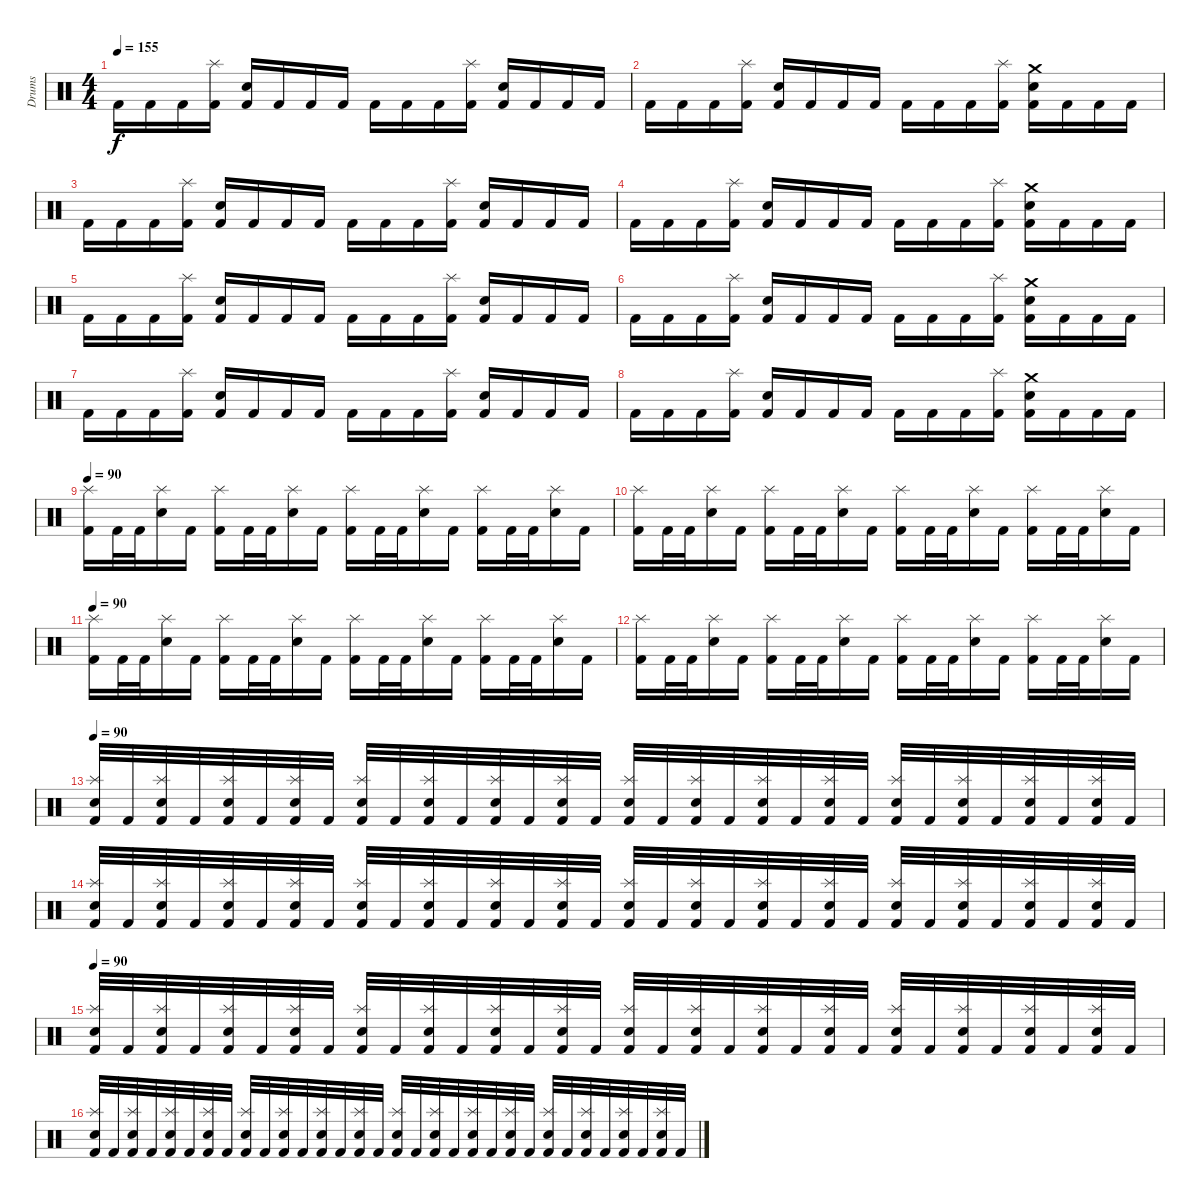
\track ("Drums" "Drums") {instrument percussion}
\staff {score}
\articulation defaults
\ts (4 4)
\tempo 155
\clef neutral
\ks c "Kick (hit) 2".16{dy f} "Kick (hit) 2".16 "Kick (hit) 2".16
("Splash (hit)" "Kick (hit) 2").16 ("Snare (hit) 2" "Kick (hit) 2").16 "Kick (hit) 2".16 "Kick (hit) 2".16 "Kick (hit) 2".16 "Kick (hit) 2".16 "Kick (hit) 2".16 "Kick (hit) 2".16 ("Splash (hit)" "Kick (hit) 2").16 ("Snare (hit) 2" "Kick (hit) 2").16 "Kick (hit) 2".16 "Kick (hit) 2".16 "Kick (hit) 2".16 |
"Kick (hit) 2".16 "Kick (hit) 2".16 "Kick (hit) 2".16 ("Splash (hit)" "Kick (hit) 2").16 ("Snare (hit) 2" "Kick (hit) 2").16 "Kick (hit) 2".16 "Kick (hit) 2".16 "Kick (hit) 2".16 "Kick (hit) 2".16 "Kick (hit) 2".16 "Kick (hit) 2".16 ("Splash (hit)" "Kick (hit) 2").16 ("Crash medium (hit)" "Snare (hit) 2" "Kick (hit) 2").16 "Kick (hit) 2".16 "Kick (hit) 2".16 "Kick (hit) 2".16 |
"Kick (hit) 2".16 "Kick (hit) 2".16 "Kick (hit) 2".16 ("Splash (hit)" "Kick (hit) 2").16 ("Snare (hit) 2" "Kick (hit) 2").16 "Kick (hit) 2".16 "Kick (hit) 2".16 "Kick (hit) 2".16 "Kick (hit) 2".16 "Kick (hit) 2".16 "Kick (hit) 2".16 ("Splash (hit)" "Kick (hit) 2").16 ("Snare (hit) 2" "Kick (hit) 2").16 "Kick (hit) 2".16 "Kick (hit) 2".16 "Kick (hit) 2".16 |
"Kick (hit) 2".16 "Kick (hit) 2".16 "Kick (hit) 2".16 ("Splash (hit)" "Kick (hit) 2").16 ("Snare (hit) 2" "Kick (hit) 2").16 "Kick (hit) 2".16 "Kick (hit) 2".16 "Kick (hit) 2".16 "Kick (hit) 2".16 "Kick (hit) 2".16 "Kick (hit) 2".16 ("Splash (hit)" "Kick (hit) 2").16 ("Crash medium (hit)" "Snare (hit) 2" "Kick (hit) 2").16 "Kick (hit) 2".16 "Kick (hit) 2".16 "Kick (hit) 2".16 |
"Kick (hit) 2".16 "Kick (hit) 2".16 "Kick (hit) 2".16 ("Splash (hit)" "Kick (hit) 2").16 ("Snare (hit) 2" "Kick (hit) 2").16 "Kick (hit) 2".16 "Kick (hit) 2".16 "Kick (hit) 2".16 "Kick (hit) 2".16 "Kick (hit) 2".16 "Kick (hit) 2".16 ("Splash (hit)" "Kick (hit) 2").16 ("Snare (hit) 2" "Kick (hit) 2").16 "Kick (hit) 2".16 "Kick (hit) 2".16 "Kick (hit) 2".16 |
"Kick (hit) 2".16 "Kick (hit) 2".16 "Kick (hit) 2".16 ("Splash (hit)" "Kick (hit) 2").16 ("Snare (hit) 2" "Kick (hit) 2").16 "Kick (hit) 2".16 "Kick (hit) 2".16 "Kick (hit) 2".16 "Kick (hit) 2".16 "Kick (hit) 2".16 "Kick (hit) 2".16 ("Splash (hit)" "Kick (hit) 2").16 ("Crash medium (hit)" "Snare (hit) 2" "Kick (hit) 2").16 "Kick (hit) 2".16 "Kick (hit) 2".16 "Kick (hit) 2".16 |
"Kick (hit) 2".16 "Kick (hit) 2".16 "Kick (hit) 2".16 ("Splash (hit)" "Kick (hit) 2").16 ("Snare (hit) 2" "Kick (hit) 2").16 "Kick (hit) 2".16 "Kick (hit) 2".16 "Kick (hit) 2".16 "Kick (hit) 2".16 "Kick (hit) 2".16 "Kick (hit) 2".16 ("Splash (hit)" "Kick (hit) 2").16 ("Snare (hit) 2" "Kick (hit) 2").16 "Kick (hit) 2".16 "Kick (hit) 2".16 "Kick (hit) 2".16 |
"Kick (hit) 2".16 "Kick (hit) 2".16 "Kick (hit) 2".16 ("Splash (hit)" "Kick (hit) 2").16 ("Snare (hit) 2" "Kick (hit) 2").16 "Kick (hit) 2".16 "Kick (hit) 2".16 "Kick (hit) 2".16 "Kick (hit) 2".16 "Kick (hit) 2".16 "Kick (hit) 2".16 ("Splash (hit)" "Kick (hit) 2").16 ("Crash medium (hit)" "Snare (hit) 2" "Kick (hit) 2").16 "Kick (hit) 2".16 "Kick (hit) 2".16 "Kick (hit) 2".16 |
\tempo 80
\tempo 90
("Splash (hit)" "Kick (hit) 2").16 "Kick (hit) 2".32 "Kick (hit) 2".32 ("Splash (hit)" "Snare (hit) 2").16 "Kick (hit) 2".16 ("Splash (hit)" "Kick (hit) 2").16 "Kick (hit) 2".32 "Kick (hit) 2".32 ("Splash (hit)" "Snare (hit) 2").16 "Kick (hit) 2".16 ("Splash (hit)" "Kick (hit) 2").16 "Kick (hit) 2".32 "Kick (hit) 2".32 ("Splash (hit)" "Snare (hit) 2").16 "Kick (hit) 2".16 ("Splash (hit)" "Kick (hit) 2").16 "Kick (hit) 2".32 "Kick (hit) 2".32 ("Splash (hit)" "Snare (hit) 2").16 "Kick (hit) 2".16 |
("Splash (hit)" "Kick (hit) 2").16 "Kick (hit) 2".32 "Kick (hit) 2".32 ("Splash (hit)" "Snare (hit) 2").16 "Kick (hit) 2".16 ("Splash (hit)" "Kick (hit) 2").16 "Kick (hit) 2".32 "Kick (hit) 2".32 ("Splash (hit)" "Snare (hit) 2").16 "Kick (hit) 2".16 ("Splash (hit)" "Kick (hit) 2").16 "Kick (hit) 2".32 "Kick (hit) 2".32 ("Splash (hit)" "Snare (hit) 2").16 "Kick (hit) 2".16 ("Splash (hit)" "Kick (hit) 2").16 "Kick (hit) 2".32 "Kick (hit) 2".32 ("Splash (hit)" "Snare (hit) 2").16 "Kick (hit) 2".16 |
\tempo 90
("Splash (hit)" "Kick (hit) 2").16 "Kick (hit) 2".32 "Kick (hit) 2".32 ("Splash (hit)" "Snare (hit) 2").16 "Kick (hit) 2".16 ("Splash (hit)" "Kick (hit) 2").16 "Kick (hit) 2".32 "Kick (hit) 2".32 ("Splash (hit)" "Snare (hit) 2").16 "Kick (hit) 2".16 ("Splash (hit)" "Kick (hit) 2").16 "Kick (hit) 2".32 "Kick (hit) 2".32 ("Splash (hit)" "Snare (hit) 2").16 "Kick (hit) 2".16 ("Splash (hit)" "Kick (hit) 2").16 "Kick (hit) 2".32 "Kick (hit) 2".32 ("Splash (hit)" "Snare (hit) 2").16 "Kick (hit) 2".16 |
("Splash (hit)" "Kick (hit) 2").16 "Kick (hit) 2".32 "Kick (hit) 2".32 ("Splash (hit)" "Snare (hit) 2").16 "Kick (hit) 2".16 ("Splash (hit)" "Kick (hit) 2").16 "Kick (hit) 2".32 "Kick (hit) 2".32 ("Splash (hit)" "Snare (hit) 2").16 "Kick (hit) 2".16 ("Splash (hit)" "Kick (hit) 2").16 "Kick (hit) 2".32 "Kick (hit) 2".32 ("Splash (hit)" "Snare (hit) 2").16 "Kick (hit) 2".16 ("Splash (hit)" "Kick (hit) 2").16 "Kick (hit) 2".32 "Kick (hit) 2".32 ("Splash (hit)" "Snare (hit) 2").16 "Kick (hit) 2".16 |
\tempo 90
("Splash (hit)" "Snare (hit) 2" "Kick (hit) 2").32 "Kick (hit) 2".32 ("Splash (hit)" "Snare (hit) 2" "Kick (hit) 2").32 "Kick (hit) 2".32 ("Splash (hit)" "Snare (hit) 2" "Kick (hit) 2").32 "Kick (hit) 2".32 ("Splash (hit)" "Snare (hit) 2" "Kick (hit) 2").32 "Kick (hit) 2".32 ("Splash (hit)" "Snare (hit) 2" "Kick (hit) 2").32 "Kick (hit) 2".32 ("Splash (hit)" "Snare (hit) 2" "Kick (hit) 2").32 "Kick (hit) 2".32 ("Splash (hit)" "Snare (hit) 2" "Kick (hit) 2").32 "Kick (hit) 2".32 ("Splash (hit)" "Snare (hit) 2" "Kick (hit) 2").32 "Kick (hit) 2".32 ("Splash (hit)" "Snare (hit) 2" "Kick (hit) 2").32 "Kick (hit) 2".32 ("Splash (hit)" "Snare (hit) 2" "Kick (hit) 2").32 "Kick (hit) 2".32 ("Splash (hit)" "Snare (hit) 2" "Kick (hit) 2").32 "Kick (hit) 2".32 ("Splash (hit)" "Snare (hit) 2" "Kick (hit) 2").32 "Kick (hit) 2".32 ("Splash (hit)" "Snare (hit) 2" "Kick (hit) 2").32 "Kick (hit) 2".32 ("Splash (hit)" "Snare (hit) 2" "Kick (hit) 2").32 "Kick (hit) 2".32 ("Splash (hit)" "Snare (hit) 2" "Kick (hit) 2").32 "Kick (hit) 2".32 ("Splash (hit)" "Snare (hit) 2" "Kick (hit) 2").32 "Kick (hit) 2".32 |
("Splash (hit)" "Snare (hit) 2" "Kick (hit) 2").32 "Kick (hit) 2".32 ("Splash (hit)" "Snare (hit) 2" "Kick (hit) 2").32 "Kick (hit) 2".32 ("Splash (hit)" "Snare (hit) 2" "Kick (hit) 2").32 "Kick (hit) 2".32 ("Splash (hit)" "Snare (hit) 2" "Kick (hit) 2").32 "Kick (hit) 2".32 ("Splash (hit)" "Snare (hit) 2" "Kick (hit) 2").32 "Kick (hit) 2".32 ("Splash (hit)" "Snare (hit) 2" "Kick (hit) 2").32 "Kick (hit) 2".32 ("Splash (hit)" "Snare (hit) 2" "Kick (hit) 2").32 "Kick (hit) 2".32 ("Splash (hit)" "Snare (hit) 2" "Kick (hit) 2").32 "Kick (hit) 2".32 ("Splash (hit)" "Snare (hit) 2" "Kick (hit) 2").32 "Kick (hit) 2".32 ("Splash (hit)" "Snare (hit) 2" "Kick (hit) 2").32 "Kick (hit) 2".32 ("Splash (hit)" "Snare (hit) 2" "Kick (hit) 2").32 "Kick (hit) 2".32 ("Splash (hit)" "Snare (hit) 2" "Kick (hit) 2").32 "Kick (hit) 2".32 ("Splash (hit)" "Snare (hit) 2" "Kick (hit) 2").32 "Kick (hit) 2".32 ("Splash (hit)" "Snare (hit) 2" "Kick (hit) 2").32 "Kick (hit) 2".32 ("Splash (hit)" "Snare (hit) 2" "Kick (hit) 2").32 "Kick (hit) 2".32 ("Splash (hit)" "Snare (hit) 2" "Kick (hit) 2").32 "Kick (hit) 2".32 |
\tempo 90
("Splash (hit)" "Snare (hit) 2" "Kick (hit) 2").32 "Kick (hit) 2".32 ("Splash (hit)" "Snare (hit) 2" "Kick (hit) 2").32 "Kick (hit) 2".32 ("Splash (hit)" "Snare (hit) 2" "Kick (hit) 2").32 "Kick (hit) 2".32 ("Splash (hit)" "Snare (hit) 2" "Kick (hit) 2").32 "Kick (hit) 2".32 ("Splash (hit)" "Snare (hit) 2" "Kick (hit) 2").32 "Kick (hit) 2".32 ("Splash (hit)" "Snare (hit) 2" "Kick (hit) 2").32 "Kick (hit) 2".32 ("Splash (hit)" "Snare (hit) 2" "Kick (hit) 2").32 "Kick (hit) 2".32 ("Splash (hit)" "Snare (hit) 2" "Kick (hit) 2").32 "Kick (hit) 2".32 ("Splash (hit)" "Snare (hit) 2" "Kick (hit) 2").32 "Kick (hit) 2".32 ("Splash (hit)" "Snare (hit) 2" "Kick (hit) 2").32 "Kick (hit) 2".32 ("Splash (hit)" "Snare (hit) 2" "Kick (hit) 2").32 "Kick (hit) 2".32 ("Splash (hit)" "Snare (hit) 2" "Kick (hit) 2").32 "Kick (hit) 2".32 ("Splash (hit)" "Snare (hit) 2" "Kick (hit) 2").32 "Kick (hit) 2".32 ("Splash (hit)" "Snare (hit) 2" "Kick (hit) 2").32 "Kick (hit) 2".32 ("Splash (hit)" "Snare (hit) 2" "Kick (hit) 2").32 "Kick (hit) 2".32 ("Splash (hit)" "Snare (hit) 2" "Kick (hit) 2").32 "Kick (hit) 2".32 |
("Splash (hit)" "Snare (hit) 2" "Kick (hit) 2").32 "Kick (hit) 2".32 ("Splash (hit)" "Snare (hit) 2" "Kick (hit) 2").32 "Kick (hit) 2".32 ("Splash (hit)" "Snare (hit) 2" "Kick (hit) 2").32 "Kick (hit) 2".32 ("Splash (hit)" "Snare (hit) 2" "Kick (hit) 2").32 "Kick (hit) 2".32 ("Splash (hit)" "Snare (hit) 2" "Kick (hit) 2").32 "Kick (hit) 2".32 ("Splash (hit)" "Snare (hit) 2" "Kick (hit) 2").32 "Kick (hit) 2".32 ("Splash (hit)" "Snare (hit) 2" "Kick (hit) 2").32 "Kick (hit) 2".32 ("Splash (hit)" "Snare (hit) 2" "Kick (hit) 2").32 "Kick (hit) 2".32 ("Splash (hit)" "Snare (hit) 2" "Kick (hit) 2").32 "Kick (hit) 2".32 ("Splash (hit)" "Snare (hit) 2" "Kick (hit) 2").32 "Kick (hit) 2".32 ("Splash (hit)" "Snare (hit) 2" "Kick (hit) 2").32 "Kick (hit) 2".32 ("Splash (hit)" "Snare (hit) 2" "Kick (hit) 2").32 "Kick (hit) 2".32 ("Splash (hit)" "Snare (hit) 2" "Kick (hit) 2").32 "Kick (hit) 2".32 ("Splash (hit)" "Snare (hit) 2" "Kick (hit) 2").32 "Kick (hit) 2".32 ("Splash (hit)" "Snare (hit) 2" "Kick (hit) 2").32 "Kick (hit) 2".32 ("Splash (hit)" "Snare (hit) 2" "Kick (hit) 2").32 "Kick (hit) 2".32
